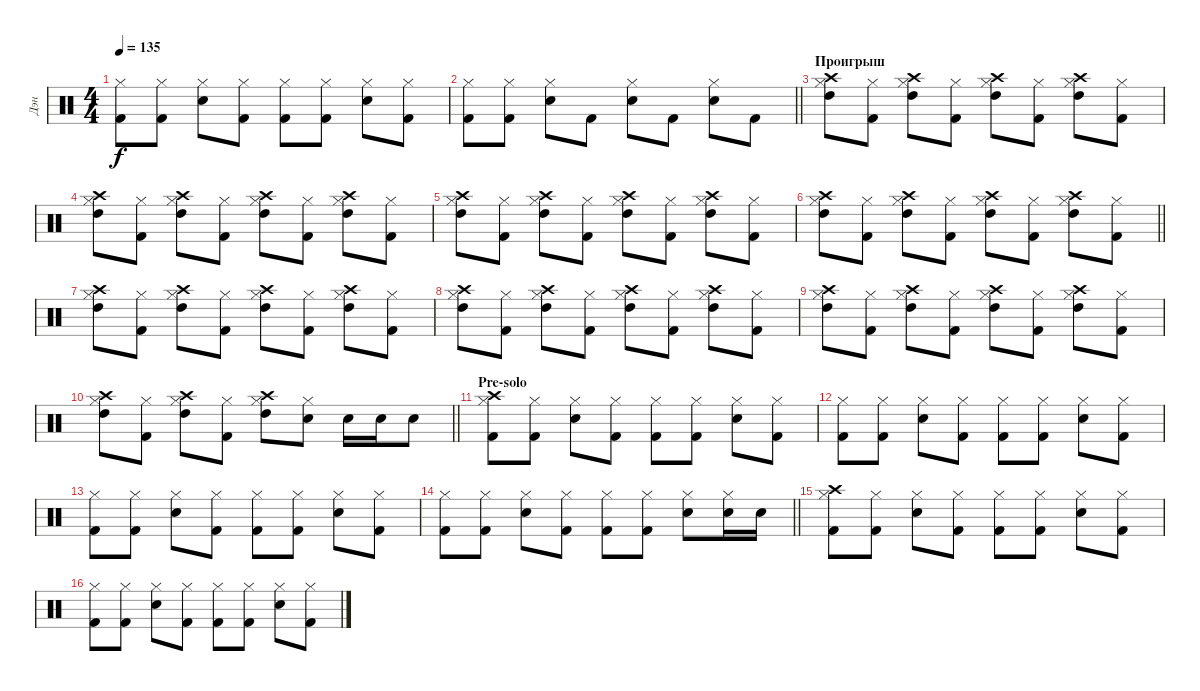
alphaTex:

\track ("Дэн" "Дэн") {instrument percussion}
\staff {score}
\articulation defaults
\ts (4 4)
\tempo 135
\clef neutral
\ks c
("Kick (hit) 2" "Hi-Hat (closed)").8{dy f} ("Kick (hit) 2" "Hi-Hat (closed)").8 ("Electric Snare (hit)" "Hi-Hat (closed)").8 ("Kick (hit) 2" "Hi-Hat (closed)").8 ("Kick (hit) 2" "Hi-Hat (closed)").8 ("Kick (hit) 2" "Hi-Hat (closed)").8 ("Electric Snare (hit)" "Hi-Hat (closed)").8 ("Kick (hit) 2" "Hi-Hat (closed)").8 |
\barLineRight lightlight
("Kick (hit) 2" "Hi-Hat (closed)").8 ("Kick (hit) 2" "Hi-Hat (closed)").8 ("Electric Snare (hit)" "Hi-Hat (closed)").8 "Kick (hit) 2".8 ("Electric Snare (hit)" "Hi-Hat (closed)").8 "Kick (hit) 2".8 ("Electric Snare (hit)" "Hi-Hat (closed)").8 "Kick (hit) 2".8 |
\section ("" "Проигрыш")
("Crash high (hit)" "Hi-Hat (closed)" "High Tom (hit)").8 ("Kick (hit) 2" "Hi-Hat (closed)").8 ("Crash high (hit)" "Hi-Hat (closed)" "High Tom (hit)").8 ("Kick (hit) 2" "Hi-Hat (closed)").8 ("Crash high (hit)" "Hi-Hat (closed)" "High Tom (hit)").8 ("Kick (hit) 2" "Hi-Hat (closed)").8 ("Crash high (hit)" "Hi-Hat (closed)" "High Tom (hit)").8 ("Kick (hit) 2" "Hi-Hat (closed)").8 |
("Crash high (hit)" "Hi-Hat (closed)" "High Tom (hit)").8 ("Kick (hit) 2" "Hi-Hat (closed)").8 ("Crash high (hit)" "Hi-Hat (closed)" "High Tom (hit)").8 ("Kick (hit) 2" "Hi-Hat (closed)").8 ("Crash high (hit)" "Hi-Hat (closed)" "High Tom (hit)").8 ("Kick (hit) 2" "Hi-Hat (closed)").8 ("Crash high (hit)" "Hi-Hat (closed)" "High Tom (hit)").8 ("Kick (hit) 2" "Hi-Hat (closed)").8 |
("Crash high (hit)" "Hi-Hat (closed)" "High Tom (hit)").8 ("Kick (hit) 2" "Hi-Hat (closed)").8 ("Crash high (hit)" "Hi-Hat (closed)" "High Tom (hit)").8 ("Kick (hit) 2" "Hi-Hat (closed)").8 ("Crash high (hit)" "Hi-Hat (closed)" "High Tom (hit)").8 ("Kick (hit) 2" "Hi-Hat (closed)").8 ("Crash high (hit)" "Hi-Hat (closed)" "High Tom (hit)").8 ("Kick (hit) 2" "Hi-Hat (closed)").8 |
\barLineRight lightlight
("Crash high (hit)" "Hi-Hat (closed)" "High Tom (hit)").8 ("Kick (hit) 2" "Hi-Hat (closed)").8 ("Crash high (hit)" "Hi-Hat (closed)" "High Tom (hit)").8 ("Kick (hit) 2" "Hi-Hat (closed)").8 ("Crash high (hit)" "Hi-Hat (closed)" "High Tom (hit)").8 ("Kick (hit) 2" "Hi-Hat (closed)").8 ("Crash high (hit)" "Hi-Hat (closed)" "High Tom (hit)").8 ("Kick (hit) 2" "Hi-Hat (closed)").8 |
("Crash high (hit)" "Hi-Hat (closed)" "High Tom (hit)").8 ("Kick (hit) 2" "Hi-Hat (closed)").8 ("Crash high (hit)" "Hi-Hat (closed)" "High Tom (hit)").8 ("Kick (hit) 2" "Hi-Hat (closed)").8 ("Crash high (hit)" "Hi-Hat (closed)" "High Tom (hit)").8 ("Kick (hit) 2" "Hi-Hat (closed)").8 ("Crash high (hit)" "Hi-Hat (closed)" "High Tom (hit)").8 ("Kick (hit) 2" "Hi-Hat (closed)").8 |
("Crash high (hit)" "Hi-Hat (closed)" "High Tom (hit)").8 ("Kick (hit) 2" "Hi-Hat (closed)").8 ("Crash high (hit)" "Hi-Hat (closed)" "High Tom (hit)").8 ("Kick (hit) 2" "Hi-Hat (closed)").8 ("Crash high (hit)" "Hi-Hat (closed)" "High Tom (hit)").8 ("Kick (hit) 2" "Hi-Hat (closed)").8 ("Crash high (hit)" "Hi-Hat (closed)" "High Tom (hit)").8 ("Kick (hit) 2" "Hi-Hat (closed)").8 |
("Crash high (hit)" "Hi-Hat (closed)" "High Tom (hit)").8 ("Kick (hit) 2" "Hi-Hat (closed)").8 ("Crash high (hit)" "Hi-Hat (closed)" "High Tom (hit)").8 ("Kick (hit) 2" "Hi-Hat (closed)").8 ("Crash high (hit)" "Hi-Hat (closed)" "High Tom (hit)").8 ("Kick (hit) 2" "Hi-Hat (closed)").8 ("Crash high (hit)" "Hi-Hat (closed)" "High Tom (hit)").8 ("Kick (hit) 2" "Hi-Hat (closed)").8 |
\barLineRight lightlight
("Crash high (hit)" "Hi-Hat (closed)" "High Tom (hit)").8 ("Kick (hit) 2" "Hi-Hat (closed)").8 ("Crash high (hit)" "Hi-Hat (closed)" "High Tom (hit)").8 ("Kick (hit) 2" "Hi-Hat (closed)").8 ("Crash high (hit)" "Hi-Hat (closed)" "High Tom (hit)").8 ("Electric Snare (hit)" "Hi-Hat (closed)").8 "Electric Snare (hit)".16 "Electric Snare (hit)".16 "Electric Snare (hit)".8 |
\section ("" "Pre-solo")
("Kick (hit) 2" "Crash high (hit)" "Hi-Hat (closed)").8 ("Kick (hit) 2" "Hi-Hat (closed)").8 ("Electric Snare (hit)" "Hi-Hat (closed)").8 ("Kick (hit) 2" "Hi-Hat (closed)").8 ("Kick (hit) 2" "Hi-Hat (closed)").8 ("Kick (hit) 2" "Hi-Hat (closed)").8 ("Electric Snare (hit)" "Hi-Hat (closed)").8 ("Kick (hit) 2" "Hi-Hat (closed)").8 |
("Kick (hit) 2" "Hi-Hat (closed)").8 ("Kick (hit) 2" "Hi-Hat (closed)").8 ("Electric Snare (hit)" "Hi-Hat (closed)").8 ("Kick (hit) 2" "Hi-Hat (closed)").8 ("Kick (hit) 2" "Hi-Hat (closed)").8 ("Kick (hit) 2" "Hi-Hat (closed)").8 ("Electric Snare (hit)" "Hi-Hat (closed)").8 ("Kick (hit) 2" "Hi-Hat (closed)").8 |
("Kick (hit) 2" "Hi-Hat (closed)").8 ("Kick (hit) 2" "Hi-Hat (closed)").8 ("Electric Snare (hit)" "Hi-Hat (closed)").8 ("Kick (hit) 2" "Hi-Hat (closed)").8 ("Kick (hit) 2" "Hi-Hat (closed)").8 ("Kick (hit) 2" "Hi-Hat (closed)").8 ("Electric Snare (hit)" "Hi-Hat (closed)").8 ("Kick (hit) 2" "Hi-Hat (closed)").8 |
\barLineRight lightlight
("Kick (hit) 2" "Hi-Hat (closed)").8 ("Kick (hit) 2" "Hi-Hat (closed)").8 ("Electric Snare (hit)" "Hi-Hat (closed)").8 ("Kick (hit) 2" "Hi-Hat (closed)").8 ("Kick (hit) 2" "Hi-Hat (closed)").8 ("Kick (hit) 2" "Hi-Hat (closed)").8 ("Electric Snare (hit)" "Hi-Hat (closed)").8 ("Electric Snare (hit)" "Hi-Hat (closed)").16 "Electric Snare (hit)".16 |
("Kick (hit) 2" "Crash high (hit)" "Hi-Hat (closed)").8 ("Kick (hit) 2" "Hi-Hat (closed)").8 ("Electric Snare (hit)" "Hi-Hat (closed)").8 ("Kick (hit) 2" "Hi-Hat (closed)").8 ("Kick (hit) 2" "Hi-Hat (closed)").8 ("Kick (hit) 2" "Hi-Hat (closed)").8 ("Electric Snare (hit)" "Hi-Hat (closed)").8 ("Kick (hit) 2" "Hi-Hat (closed)").8 |
("Kick (hit) 2" "Hi-Hat (closed)").8 ("Kick (hit) 2" "Hi-Hat (closed)").8 ("Electric Snare (hit)" "Hi-Hat (closed)").8 ("Kick (hit) 2" "Hi-Hat (closed)").8 ("Kick (hit) 2" "Hi-Hat (closed)").8 ("Kick (hit) 2" "Hi-Hat (closed)").8 ("Electric Snare (hit)" "Hi-Hat (closed)").8 ("Kick (hit) 2" "Hi-Hat (closed)").8
